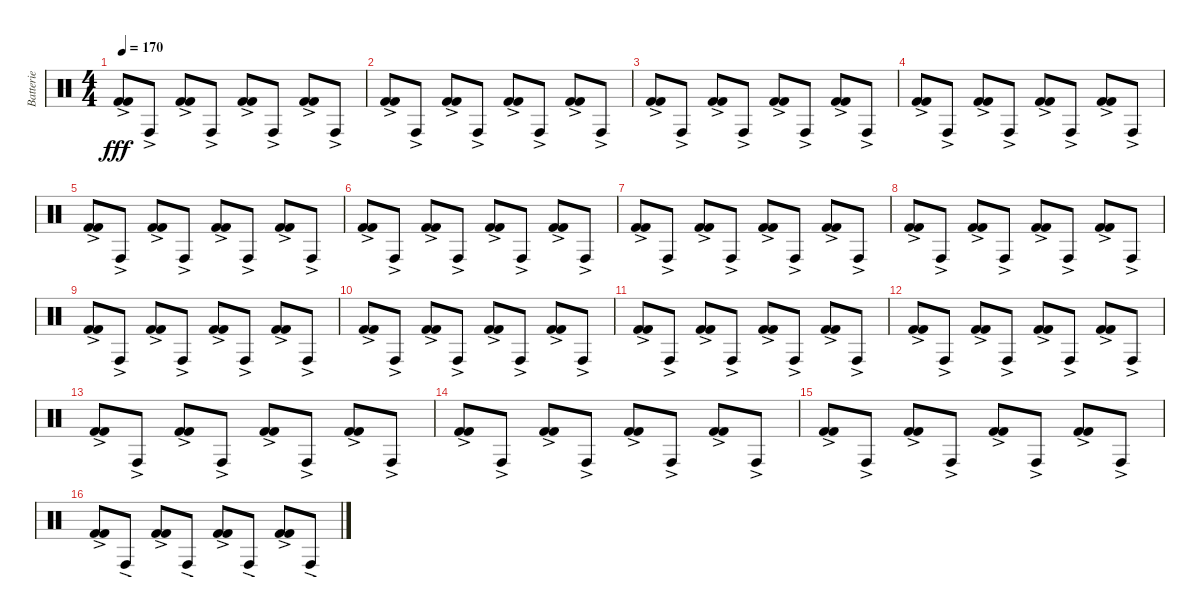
\track ("Batterie" "Batterie") {instrument percussion}
\staff {score}
\articulation defaults
\ts (4 4)
\tempo 170
\clef neutral
\ks c
("Kick (hit) 2"{ac} "Kick (hit) 2"{ac}).8{dy fff} "Conga high (hit)"{ac}.8 ("Kick (hit) 2"{ac} "Kick (hit) 2"{ac}).8 "Conga high (hit)"{ac}.8 ("Kick (hit) 2"{ac} "Kick (hit) 2"{ac}).8 "Conga high (hit)"{ac}.8 ("Kick (hit) 2"{ac} "Kick (hit) 2"{ac}).8 "Conga high (hit)"{ac}.8 |
("Kick (hit) 2"{ac} "Kick (hit) 2"{ac}).8 "Conga high (hit)"{ac}.8 ("Kick (hit) 2"{ac} "Kick (hit) 2"{ac}).8 "Conga high (hit)"{ac}.8 ("Kick (hit) 2"{ac} "Kick (hit) 2"{ac}).8 "Conga high (hit)"{ac}.8 ("Kick (hit) 2"{ac} "Kick (hit) 2"{ac}).8 "Conga high (hit)"{ac}.8 |
("Kick (hit) 2"{ac} "Kick (hit) 2"{ac}).8 "Conga high (hit)"{ac}.8 ("Kick (hit) 2"{ac} "Kick (hit) 2"{ac}).8 "Conga high (hit)"{ac}.8 ("Kick (hit) 2"{ac} "Kick (hit) 2"{ac}).8 "Conga high (hit)"{ac}.8 ("Kick (hit) 2"{ac} "Kick (hit) 2"{ac}).8 "Conga high (hit)"{ac}.8 |
("Kick (hit) 2"{ac} "Kick (hit) 2"{ac}).8 "Conga high (hit)"{ac}.8 ("Kick (hit) 2"{ac} "Kick (hit) 2"{ac}).8 "Conga high (hit)"{ac}.8 ("Kick (hit) 2"{ac} "Kick (hit) 2"{ac}).8 "Conga high (hit)"{ac}.8 ("Kick (hit) 2"{ac} "Kick (hit) 2"{ac}).8 "Conga high (hit)"{ac}.8 |
("Kick (hit) 2"{ac} "Kick (hit) 2"{ac}).8 "Conga high (hit)"{ac}.8 ("Kick (hit) 2"{ac} "Kick (hit) 2"{ac}).8 "Conga high (hit)"{ac}.8 ("Kick (hit) 2"{ac} "Kick (hit) 2"{ac}).8 "Conga high (hit)"{ac}.8 ("Kick (hit) 2"{ac} "Kick (hit) 2"{ac}).8 "Conga high (hit)"{ac}.8 |
("Kick (hit) 2"{ac} "Kick (hit) 2"{ac}).8 "Conga high (hit)"{ac}.8 ("Kick (hit) 2"{ac} "Kick (hit) 2"{ac}).8 "Conga high (hit)"{ac}.8 ("Kick (hit) 2"{ac} "Kick (hit) 2"{ac}).8 "Conga high (hit)"{ac}.8 ("Kick (hit) 2"{ac} "Kick (hit) 2"{ac}).8 "Conga high (hit)"{ac}.8 |
("Kick (hit) 2"{ac} "Kick (hit) 2"{ac}).8 "Conga high (hit)"{ac}.8 ("Kick (hit) 2"{ac} "Kick (hit) 2"{ac}).8 "Conga high (hit)"{ac}.8 ("Kick (hit) 2"{ac} "Kick (hit) 2"{ac}).8 "Conga high (hit)"{ac}.8 ("Kick (hit) 2"{ac} "Kick (hit) 2"{ac}).8 "Conga high (hit)"{ac}.8 |
("Kick (hit) 2"{ac} "Kick (hit) 2"{ac}).8 "Conga high (hit)"{ac}.8 ("Kick (hit) 2"{ac} "Kick (hit) 2"{ac}).8 "Conga high (hit)"{ac}.8 ("Kick (hit) 2"{ac} "Kick (hit) 2"{ac}).8 "Conga high (hit)"{ac}.8 ("Kick (hit) 2"{ac} "Kick (hit) 2"{ac}).8 "Conga high (hit)"{ac}.8 |
("Kick (hit) 2"{ac} "Kick (hit) 2"{ac}).8 "Conga high (hit)"{ac}.8 ("Kick (hit) 2"{ac} "Kick (hit) 2"{ac}).8 "Conga high (hit)"{ac}.8 ("Kick (hit) 2"{ac} "Kick (hit) 2"{ac}).8 "Conga high (hit)"{ac}.8 ("Kick (hit) 2"{ac} "Kick (hit) 2"{ac}).8 "Conga high (hit)"{ac}.8 |
("Kick (hit) 2"{ac} "Kick (hit) 2"{ac}).8 "Conga high (hit)"{ac}.8 ("Kick (hit) 2"{ac} "Kick (hit) 2"{ac}).8 "Conga high (hit)"{ac}.8 ("Kick (hit) 2"{ac} "Kick (hit) 2"{ac}).8 "Conga high (hit)"{ac}.8 ("Kick (hit) 2"{ac} "Kick (hit) 2"{ac}).8 "Conga high (hit)"{ac}.8 |
("Kick (hit) 2"{ac} "Kick (hit) 2"{ac}).8 "Conga high (hit)"{ac}.8 ("Kick (hit) 2"{ac} "Kick (hit) 2"{ac}).8 "Conga high (hit)"{ac}.8 ("Kick (hit) 2"{ac} "Kick (hit) 2"{ac}).8 "Conga high (hit)"{ac}.8 ("Kick (hit) 2"{ac} "Kick (hit) 2"{ac}).8 "Conga high (hit)"{ac}.8 |
("Kick (hit) 2"{ac} "Kick (hit) 2"{ac}).8 "Conga high (hit)"{ac}.8 ("Kick (hit) 2"{ac} "Kick (hit) 2"{ac}).8 "Conga high (hit)"{ac}.8 ("Kick (hit) 2"{ac} "Kick (hit) 2"{ac}).8 "Conga high (hit)"{ac}.8 ("Kick (hit) 2"{ac} "Kick (hit) 2"{ac}).8 "Conga high (hit)"{ac}.8 |
("Kick (hit) 2"{ac} "Kick (hit) 2"{ac}).8 "Conga high (hit)"{ac}.8 ("Kick (hit) 2"{ac} "Kick (hit) 2"{ac}).8 "Conga high (hit)"{ac}.8 ("Kick (hit) 2"{ac} "Kick (hit) 2"{ac}).8 "Conga high (hit)"{ac}.8 ("Kick (hit) 2"{ac} "Kick (hit) 2"{ac}).8 "Conga high (hit)"{ac}.8 |
("Kick (hit) 2"{ac} "Kick (hit) 2"{ac}).8 "Conga high (hit)"{ac}.8 ("Kick (hit) 2"{ac} "Kick (hit) 2"{ac}).8 "Conga high (hit)"{ac}.8 ("Kick (hit) 2"{ac} "Kick (hit) 2"{ac}).8 "Conga high (hit)"{ac}.8 ("Kick (hit) 2"{ac} "Kick (hit) 2"{ac}).8 "Conga high (hit)"{ac}.8 |
("Kick (hit) 2"{ac} "Kick (hit) 2"{ac}).8 "Conga high (hit)"{ac}.8 ("Kick (hit) 2"{ac} "Kick (hit) 2"{ac}).8 "Conga high (hit)"{ac}.8 ("Kick (hit) 2"{ac} "Kick (hit) 2"{ac}).8 "Conga high (hit)"{ac}.8 ("Kick (hit) 2"{ac} "Kick (hit) 2"{ac}).8 "Conga high (hit)"{ac}.8 |
("Kick (hit) 2"{ac} "Kick (hit) 2"{ac}).8 "Conga high (hit)"{ac}.8 ("Kick (hit) 2"{ac} "Kick (hit) 2"{ac}).8 "Conga high (hit)"{ac}.8 ("Kick (hit) 2"{ac} "Kick (hit) 2"{ac}).8 "Conga high (hit)"{ac}.8 ("Kick (hit) 2"{ac} "Kick (hit) 2"{ac}).8 "Conga high (hit)"{ac}.8
